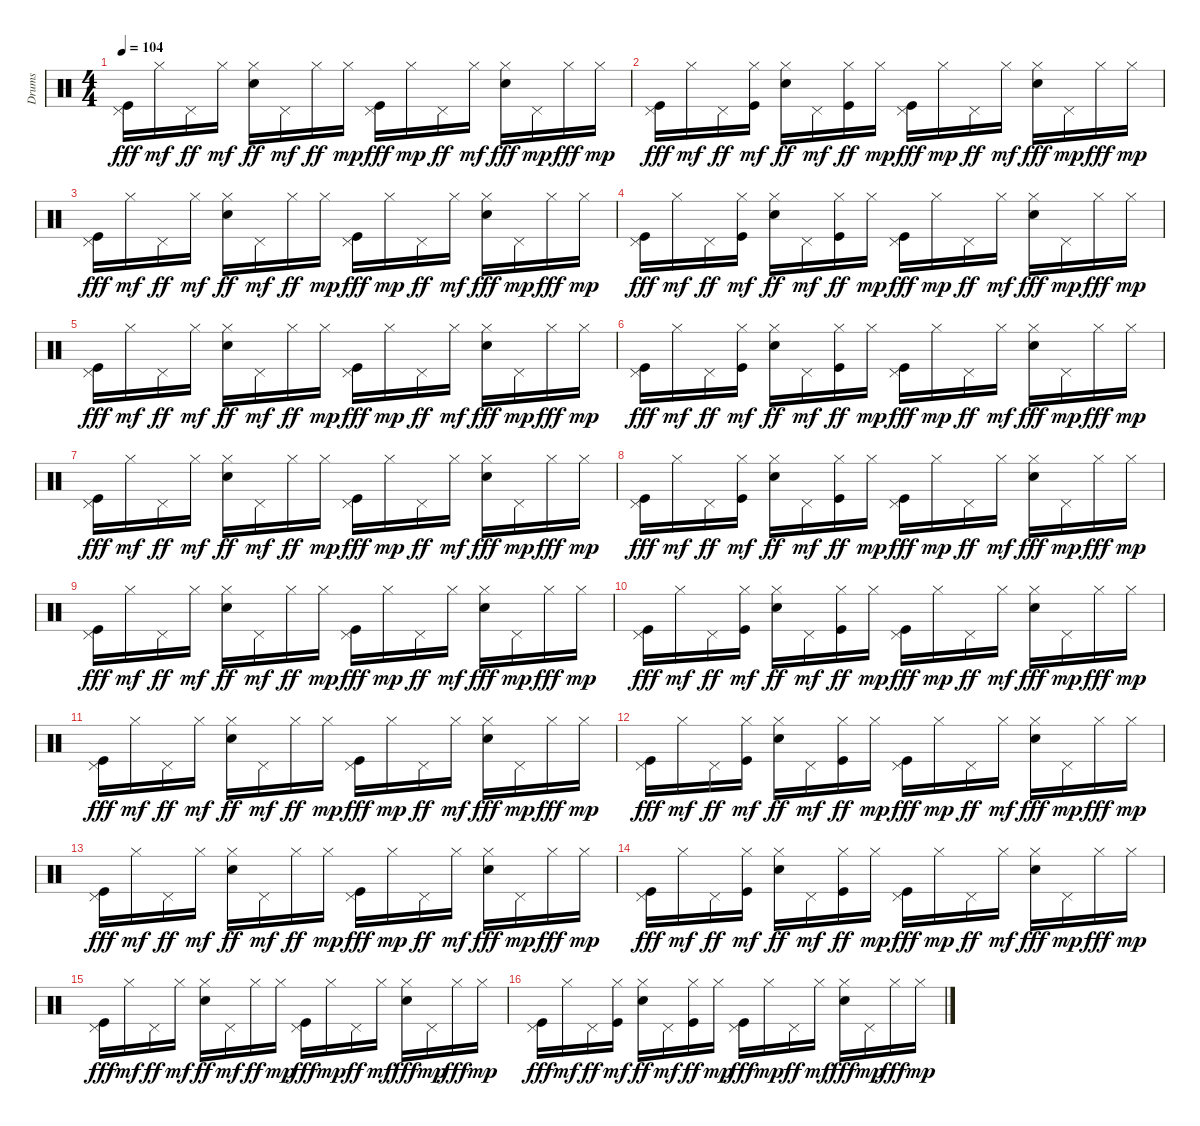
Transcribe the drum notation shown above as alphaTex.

\track ("Drums" "Drums") {instrument percussion}
\staff {score}
\articulation defaults
\ts (4 4)
\tempo 104
\clef neutral
\ks c
("Kick (hit)" "Pedal Hi-Hat (hit)").16{dy fff} "Hi-Hat (closed)".16{dy mf} "Pedal Hi-Hat (hit)".16{dy ff} "Hi-Hat (closed)".16{dy mf} ("Electric Snare (hit)" "Hi-Hat (closed)").16{dy ff} "Pedal Hi-Hat (hit)".16{dy mf} "Hi-Hat (closed)".16{dy ff} "Hi-Hat (closed)".16{dy mp} ("Kick (hit)" "Pedal Hi-Hat (hit)").16{dy fff} "Hi-Hat (closed)".16{dy mp} "Pedal Hi-Hat (hit)".16{dy ff} "Hi-Hat (closed)".16{dy mf} ("Electric Snare (hit)" "Hi-Hat (closed)").16{dy fff} "Pedal Hi-Hat (hit)".16{dy mp} "Hi-Hat (closed)".16{dy fff} "Hi-Hat (closed)".16{dy mp} |
("Kick (hit)" "Pedal Hi-Hat (hit)").16{dy fff} "Hi-Hat (closed)".16{dy mf} "Pedal Hi-Hat (hit)".16{dy ff} ("Kick (hit)" "Hi-Hat (closed)").16{dy mf} ("Electric Snare (hit)" "Hi-Hat (closed)").16{dy ff} "Pedal Hi-Hat (hit)".16{dy mf} ("Kick (hit)" "Hi-Hat (closed)").16{dy ff} "Hi-Hat (closed)".16{dy mp} ("Kick (hit)" "Pedal Hi-Hat (hit)").16{dy fff} "Hi-Hat (closed)".16{dy mp} "Pedal Hi-Hat (hit)".16{dy ff} "Hi-Hat (closed)".16{dy mf} ("Electric Snare (hit)" "Hi-Hat (closed)").16{dy fff} "Pedal Hi-Hat (hit)".16{dy mp} "Hi-Hat (closed)".16{dy fff} "Hi-Hat (closed)".16{dy mp} |
("Kick (hit)" "Pedal Hi-Hat (hit)").16{dy fff} "Hi-Hat (closed)".16{dy mf} "Pedal Hi-Hat (hit)".16{dy ff} "Hi-Hat (closed)".16{dy mf} ("Electric Snare (hit)" "Hi-Hat (closed)").16{dy ff} "Pedal Hi-Hat (hit)".16{dy mf} "Hi-Hat (closed)".16{dy ff} "Hi-Hat (closed)".16{dy mp} ("Kick (hit)" "Pedal Hi-Hat (hit)").16{dy fff} "Hi-Hat (closed)".16{dy mp} "Pedal Hi-Hat (hit)".16{dy ff} "Hi-Hat (closed)".16{dy mf} ("Electric Snare (hit)" "Hi-Hat (closed)").16{dy fff} "Pedal Hi-Hat (hit)".16{dy mp} "Hi-Hat (closed)".16{dy fff} "Hi-Hat (closed)".16{dy mp} |
("Kick (hit)" "Pedal Hi-Hat (hit)").16{dy fff} "Hi-Hat (closed)".16{dy mf} "Pedal Hi-Hat (hit)".16{dy ff} ("Kick (hit)" "Hi-Hat (closed)").16{dy mf} ("Electric Snare (hit)" "Hi-Hat (closed)").16{dy ff} "Pedal Hi-Hat (hit)".16{dy mf} ("Kick (hit)" "Hi-Hat (closed)").16{dy ff} "Hi-Hat (closed)".16{dy mp} ("Kick (hit)" "Pedal Hi-Hat (hit)").16{dy fff} "Hi-Hat (closed)".16{dy mp} "Pedal Hi-Hat (hit)".16{dy ff} "Hi-Hat (closed)".16{dy mf} ("Electric Snare (hit)" "Hi-Hat (closed)").16{dy fff} "Pedal Hi-Hat (hit)".16{dy mp} "Hi-Hat (closed)".16{dy fff} "Hi-Hat (closed)".16{dy mp} |
("Kick (hit)" "Pedal Hi-Hat (hit)").16{dy fff} "Hi-Hat (closed)".16{dy mf} "Pedal Hi-Hat (hit)".16{dy ff} "Hi-Hat (closed)".16{dy mf} ("Electric Snare (hit)" "Hi-Hat (closed)").16{dy ff} "Pedal Hi-Hat (hit)".16{dy mf} "Hi-Hat (closed)".16{dy ff} "Hi-Hat (closed)".16{dy mp} ("Kick (hit)" "Pedal Hi-Hat (hit)").16{dy fff} "Hi-Hat (closed)".16{dy mp} "Pedal Hi-Hat (hit)".16{dy ff} "Hi-Hat (closed)".16{dy mf} ("Electric Snare (hit)" "Hi-Hat (closed)").16{dy fff} "Pedal Hi-Hat (hit)".16{dy mp} "Hi-Hat (closed)".16{dy fff} "Hi-Hat (closed)".16{dy mp} |
("Kick (hit)" "Pedal Hi-Hat (hit)").16{dy fff} "Hi-Hat (closed)".16{dy mf} "Pedal Hi-Hat (hit)".16{dy ff} ("Kick (hit)" "Hi-Hat (closed)").16{dy mf} ("Electric Snare (hit)" "Hi-Hat (closed)").16{dy ff} "Pedal Hi-Hat (hit)".16{dy mf} ("Kick (hit)" "Hi-Hat (closed)").16{dy ff} "Hi-Hat (closed)".16{dy mp} ("Kick (hit)" "Pedal Hi-Hat (hit)").16{dy fff} "Hi-Hat (closed)".16{dy mp} "Pedal Hi-Hat (hit)".16{dy ff} "Hi-Hat (closed)".16{dy mf} ("Electric Snare (hit)" "Hi-Hat (closed)").16{dy fff} "Pedal Hi-Hat (hit)".16{dy mp} "Hi-Hat (closed)".16{dy fff} "Hi-Hat (closed)".16{dy mp} |
("Kick (hit)" "Pedal Hi-Hat (hit)").16{dy fff} "Hi-Hat (closed)".16{dy mf} "Pedal Hi-Hat (hit)".16{dy ff} "Hi-Hat (closed)".16{dy mf} ("Electric Snare (hit)" "Hi-Hat (closed)").16{dy ff} "Pedal Hi-Hat (hit)".16{dy mf} "Hi-Hat (closed)".16{dy ff} "Hi-Hat (closed)".16{dy mp} ("Kick (hit)" "Pedal Hi-Hat (hit)").16{dy fff} "Hi-Hat (closed)".16{dy mp} "Pedal Hi-Hat (hit)".16{dy ff} "Hi-Hat (closed)".16{dy mf} ("Electric Snare (hit)" "Hi-Hat (closed)").16{dy fff} "Pedal Hi-Hat (hit)".16{dy mp} "Hi-Hat (closed)".16{dy fff} "Hi-Hat (closed)".16{dy mp} |
("Kick (hit)" "Pedal Hi-Hat (hit)").16{dy fff} "Hi-Hat (closed)".16{dy mf} "Pedal Hi-Hat (hit)".16{dy ff} ("Kick (hit)" "Hi-Hat (closed)").16{dy mf} ("Electric Snare (hit)" "Hi-Hat (closed)").16{dy ff} "Pedal Hi-Hat (hit)".16{dy mf} ("Kick (hit)" "Hi-Hat (closed)").16{dy ff} "Hi-Hat (closed)".16{dy mp} ("Kick (hit)" "Pedal Hi-Hat (hit)").16{dy fff} "Hi-Hat (closed)".16{dy mp} "Pedal Hi-Hat (hit)".16{dy ff} "Hi-Hat (closed)".16{dy mf} ("Electric Snare (hit)" "Hi-Hat (closed)").16{dy fff} "Pedal Hi-Hat (hit)".16{dy mp} "Hi-Hat (closed)".16{dy fff} "Hi-Hat (closed)".16{dy mp} |
("Kick (hit)" "Pedal Hi-Hat (hit)").16{dy fff} "Hi-Hat (closed)".16{dy mf} "Pedal Hi-Hat (hit)".16{dy ff} "Hi-Hat (closed)".16{dy mf} ("Electric Snare (hit)" "Hi-Hat (closed)").16{dy ff} "Pedal Hi-Hat (hit)".16{dy mf} "Hi-Hat (closed)".16{dy ff} "Hi-Hat (closed)".16{dy mp} ("Kick (hit)" "Pedal Hi-Hat (hit)").16{dy fff} "Hi-Hat (closed)".16{dy mp} "Pedal Hi-Hat (hit)".16{dy ff} "Hi-Hat (closed)".16{dy mf} ("Electric Snare (hit)" "Hi-Hat (closed)").16{dy fff} "Pedal Hi-Hat (hit)".16{dy mp} "Hi-Hat (closed)".16{dy fff} "Hi-Hat (closed)".16{dy mp} |
("Kick (hit)" "Pedal Hi-Hat (hit)").16{dy fff} "Hi-Hat (closed)".16{dy mf} "Pedal Hi-Hat (hit)".16{dy ff} ("Kick (hit)" "Hi-Hat (closed)").16{dy mf} ("Electric Snare (hit)" "Hi-Hat (closed)").16{dy ff} "Pedal Hi-Hat (hit)".16{dy mf} ("Kick (hit)" "Hi-Hat (closed)").16{dy ff} "Hi-Hat (closed)".16{dy mp} ("Kick (hit)" "Pedal Hi-Hat (hit)").16{dy fff} "Hi-Hat (closed)".16{dy mp} "Pedal Hi-Hat (hit)".16{dy ff} "Hi-Hat (closed)".16{dy mf} ("Electric Snare (hit)" "Hi-Hat (closed)").16{dy fff} "Pedal Hi-Hat (hit)".16{dy mp} "Hi-Hat (closed)".16{dy fff} "Hi-Hat (closed)".16{dy mp} |
("Kick (hit)" "Pedal Hi-Hat (hit)").16{dy fff} "Hi-Hat (closed)".16{dy mf} "Pedal Hi-Hat (hit)".16{dy ff} "Hi-Hat (closed)".16{dy mf} ("Electric Snare (hit)" "Hi-Hat (closed)").16{dy ff} "Pedal Hi-Hat (hit)".16{dy mf} "Hi-Hat (closed)".16{dy ff} "Hi-Hat (closed)".16{dy mp} ("Kick (hit)" "Pedal Hi-Hat (hit)").16{dy fff} "Hi-Hat (closed)".16{dy mp} "Pedal Hi-Hat (hit)".16{dy ff} "Hi-Hat (closed)".16{dy mf} ("Electric Snare (hit)" "Hi-Hat (closed)").16{dy fff} "Pedal Hi-Hat (hit)".16{dy mp} "Hi-Hat (closed)".16{dy fff} "Hi-Hat (closed)".16{dy mp} |
("Kick (hit)" "Pedal Hi-Hat (hit)").16{dy fff} "Hi-Hat (closed)".16{dy mf} "Pedal Hi-Hat (hit)".16{dy ff} ("Kick (hit)" "Hi-Hat (closed)").16{dy mf} ("Electric Snare (hit)" "Hi-Hat (closed)").16{dy ff} "Pedal Hi-Hat (hit)".16{dy mf} ("Kick (hit)" "Hi-Hat (closed)").16{dy ff} "Hi-Hat (closed)".16{dy mp} ("Kick (hit)" "Pedal Hi-Hat (hit)").16{dy fff} "Hi-Hat (closed)".16{dy mp} "Pedal Hi-Hat (hit)".16{dy ff} "Hi-Hat (closed)".16{dy mf} ("Electric Snare (hit)" "Hi-Hat (closed)").16{dy fff} "Pedal Hi-Hat (hit)".16{dy mp} "Hi-Hat (closed)".16{dy fff} "Hi-Hat (closed)".16{dy mp} |
("Kick (hit)" "Pedal Hi-Hat (hit)").16{dy fff} "Hi-Hat (closed)".16{dy mf} "Pedal Hi-Hat (hit)".16{dy ff} "Hi-Hat (closed)".16{dy mf} ("Electric Snare (hit)" "Hi-Hat (closed)").16{dy ff} "Pedal Hi-Hat (hit)".16{dy mf} "Hi-Hat (closed)".16{dy ff} "Hi-Hat (closed)".16{dy mp} ("Kick (hit)" "Pedal Hi-Hat (hit)").16{dy fff} "Hi-Hat (closed)".16{dy mp} "Pedal Hi-Hat (hit)".16{dy ff} "Hi-Hat (closed)".16{dy mf} ("Electric Snare (hit)" "Hi-Hat (closed)").16{dy fff} "Pedal Hi-Hat (hit)".16{dy mp} "Hi-Hat (closed)".16{dy fff} "Hi-Hat (closed)".16{dy mp} |
("Kick (hit)" "Pedal Hi-Hat (hit)").16{dy fff} "Hi-Hat (closed)".16{dy mf} "Pedal Hi-Hat (hit)".16{dy ff} ("Kick (hit)" "Hi-Hat (closed)").16{dy mf} ("Electric Snare (hit)" "Hi-Hat (closed)").16{dy ff} "Pedal Hi-Hat (hit)".16{dy mf} ("Kick (hit)" "Hi-Hat (closed)").16{dy ff} "Hi-Hat (closed)".16{dy mp} ("Kick (hit)" "Pedal Hi-Hat (hit)").16{dy fff} "Hi-Hat (closed)".16{dy mp} "Pedal Hi-Hat (hit)".16{dy ff} "Hi-Hat (closed)".16{dy mf} ("Electric Snare (hit)" "Hi-Hat (closed)").16{dy fff} "Pedal Hi-Hat (hit)".16{dy mp} "Hi-Hat (closed)".16{dy fff} "Hi-Hat (closed)".16{dy mp} |
("Kick (hit)" "Pedal Hi-Hat (hit)").16{dy fff} "Hi-Hat (closed)".16{dy mf} "Pedal Hi-Hat (hit)".16{dy ff} "Hi-Hat (closed)".16{dy mf} ("Electric Snare (hit)" "Hi-Hat (closed)").16{dy ff} "Pedal Hi-Hat (hit)".16{dy mf} "Hi-Hat (closed)".16{dy ff} "Hi-Hat (closed)".16{dy mp} ("Kick (hit)" "Pedal Hi-Hat (hit)").16{dy fff} "Hi-Hat (closed)".16{dy mp} "Pedal Hi-Hat (hit)".16{dy ff} "Hi-Hat (closed)".16{dy mf} ("Electric Snare (hit)" "Hi-Hat (closed)").16{dy fff} "Pedal Hi-Hat (hit)".16{dy mp} "Hi-Hat (closed)".16{dy fff} "Hi-Hat (closed)".16{dy mp} |
("Kick (hit)" "Pedal Hi-Hat (hit)").16{dy fff} "Hi-Hat (closed)".16{dy mf} "Pedal Hi-Hat (hit)".16{dy ff} ("Kick (hit)" "Hi-Hat (closed)").16{dy mf} ("Electric Snare (hit)" "Hi-Hat (closed)").16{dy ff} "Pedal Hi-Hat (hit)".16{dy mf} ("Kick (hit)" "Hi-Hat (closed)").16{dy ff} "Hi-Hat (closed)".16{dy mp} ("Kick (hit)" "Pedal Hi-Hat (hit)").16{dy fff} "Hi-Hat (closed)".16{dy mp} "Pedal Hi-Hat (hit)".16{dy ff} "Hi-Hat (closed)".16{dy mf} ("Electric Snare (hit)" "Hi-Hat (closed)").16{dy fff} "Pedal Hi-Hat (hit)".16{dy mp} "Hi-Hat (closed)".16{dy fff} "Hi-Hat (closed)".16{dy mp}
